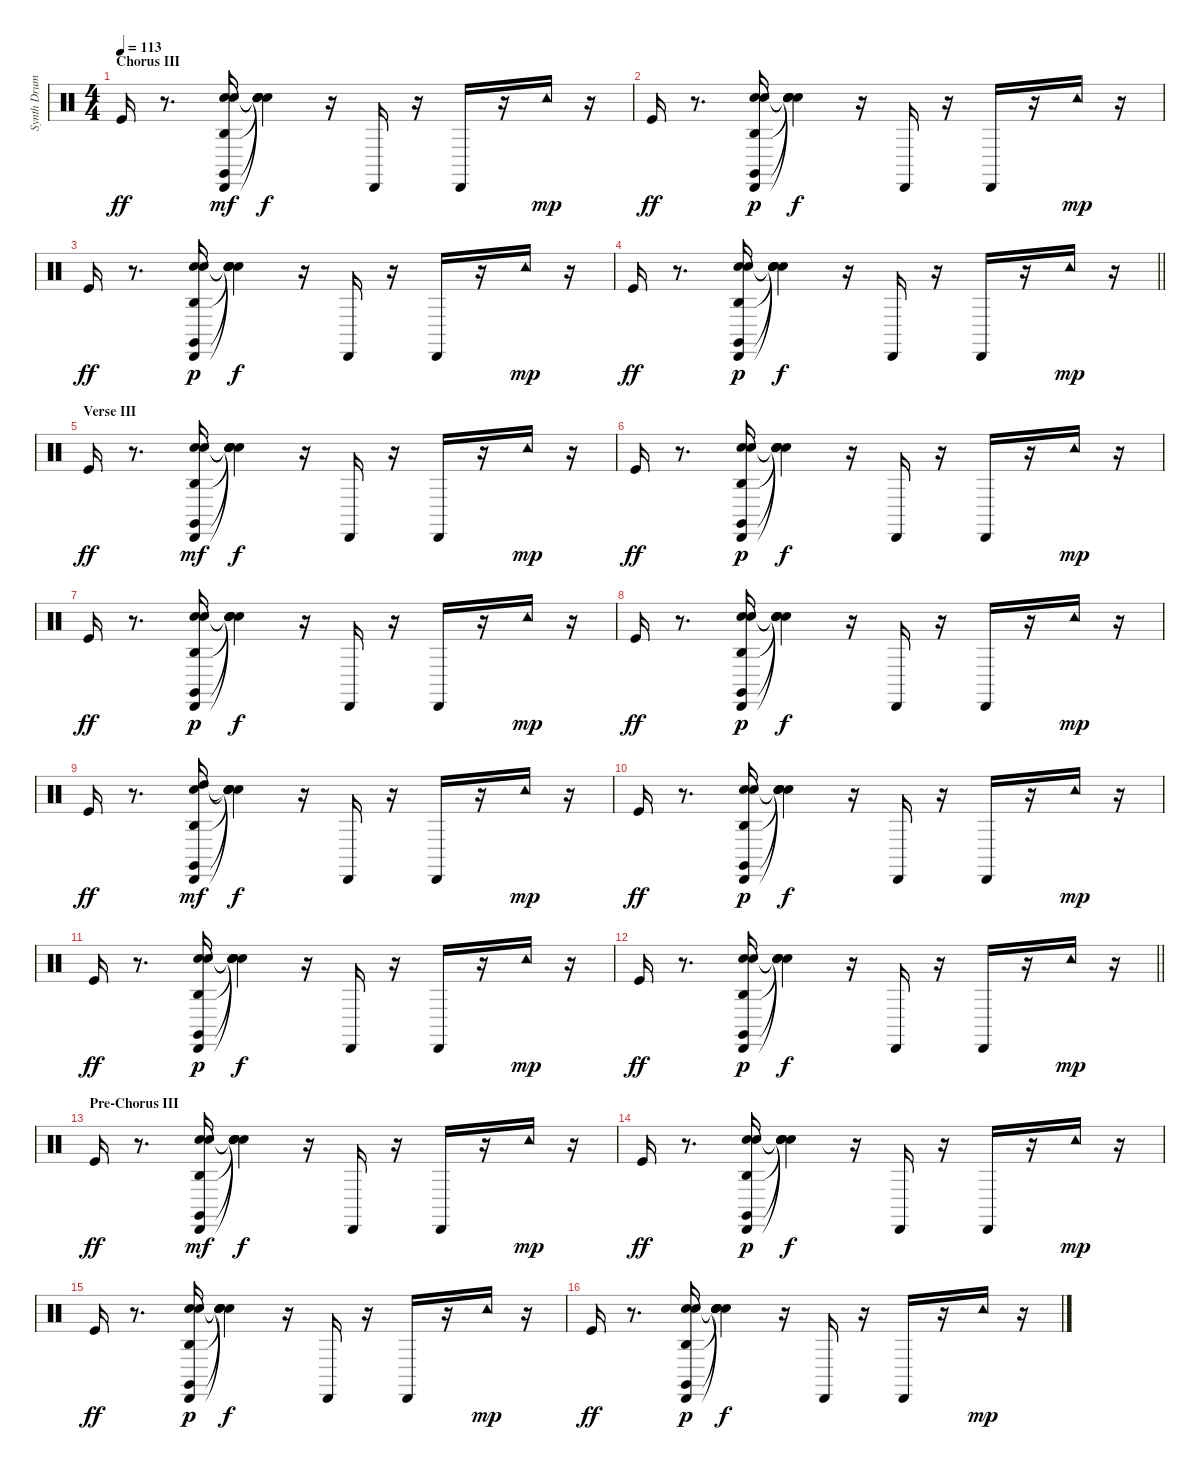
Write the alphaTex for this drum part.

\track ("Synth Drums" "Synth Drum") {instrument percussion}
\staff {score}
\articulation defaults
\ts (4 4)
\section ("" "Chorus III")
\tempo 113
\clef neutral
\ks c "Kick (hit)".16{dy ff}
r.8{d} ("Agogo high (hit)" "Claves (hit)" "Cabasa (hit)" "Electric Snare (hit)" "Snare (hit) 2").16{dy mf} ("Snare (hit)"{t} "Snare (hit)"{t} "Snare (hit)"{t} "Snare (hit)"{t} "Snare (hit)"{t}).4{dy f} r.16 "Cabasa (hit)".16 r.16 "Cabasa (hit)".16 r.16 "Tambourine (hit)".16{dy mp} r.16 |
"Kick (hit)".16{dy ff} r.8{d} ("Cabasa (hit)" "Claves (hit)" "Agogo high (hit)" "Electric Snare (hit)" "Snare (hit) 2").16{dy p} ("Snare (hit)"{t} "Snare (hit)"{t} "Snare (hit)"{t} "Snare (hit)"{t} "Snare (hit)"{t}).4{dy f} r.16 "Cabasa (hit)".16 r.16 "Cabasa (hit)".16 r.16 "Tambourine (hit)".16{dy mp} r.16 |
"Kick (hit)".16{dy ff} r.8{d} ("Cabasa (hit)" "Claves (hit)" "Agogo high (hit)" "Electric Snare (hit)" "Snare (hit) 2").16{dy p} ("Snare (hit)"{t} "Snare (hit)"{t} "Snare (hit)"{t} "Snare (hit)"{t} "Snare (hit)"{t}).4{dy f} r.16 "Cabasa (hit)".16 r.16 "Cabasa (hit)".16 r.16 "Tambourine (hit)".16{dy mp} r.16 |
\barLineRight lightlight "Kick (hit)".16{dy ff}
r.8{d} ("Cabasa (hit)" "Claves (hit)" "Agogo high (hit)" "Electric Snare (hit)" "Snare (hit) 2").16{dy p} ("Snare (hit)"{t} "Snare (hit)"{t} "Snare (hit)"{t} "Snare (hit)"{t} "Snare (hit)"{t}).4{dy f} r.16 "Cabasa (hit)".16 r.16 "Cabasa (hit)".16 r.16 "Tambourine (hit)".16{dy mp} r.16 |
\section ("" "Verse III")
"Kick (hit)".16{dy ff} r.8{d} ("Agogo high (hit)" "Claves (hit)" "Cabasa (hit)" "Electric Snare (hit)" "Snare (hit) 2").16{dy mf} ("Snare (hit)"{t} "Snare (hit)"{t} "Snare (hit)"{t} "Snare (hit)"{t} "Snare (hit)"{t}).4{dy f} r.16 "Cabasa (hit)".16 r.16 "Cabasa (hit)".16 r.16 "Tambourine (hit)".16{dy mp} r.16 |
"Kick (hit)".16{dy ff} r.8{d} ("Cabasa (hit)" "Claves (hit)" "Agogo high (hit)" "Electric Snare (hit)" "Snare (hit) 2").16{dy p} ("Snare (hit)"{t} "Snare (hit)"{t} "Snare (hit)"{t} "Snare (hit)"{t} "Snare (hit)"{t}).4{dy f} r.16 "Cabasa (hit)".16 r.16 "Cabasa (hit)".16 r.16 "Tambourine (hit)".16{dy mp} r.16 |
"Kick (hit)".16{dy ff} r.8{d} ("Cabasa (hit)" "Claves (hit)" "Agogo high (hit)" "Electric Snare (hit)" "Snare (hit) 2").16{dy p} ("Snare (hit)"{t} "Snare (hit)"{t} "Snare (hit)"{t} "Snare (hit)"{t} "Snare (hit)"{t}).4{dy f} r.16 "Cabasa (hit)".16 r.16 "Cabasa (hit)".16 r.16 "Tambourine (hit)".16{dy mp} r.16 |
"Kick (hit)".16{dy ff} r.8{d} ("Cabasa (hit)" "Claves (hit)" "Agogo high (hit)" "Electric Snare (hit)" "Snare (hit) 2").16{dy p} ("Snare (hit)"{t} "Snare (hit)"{t} "Snare (hit)"{t} "Snare (hit)"{t} "Snare (hit)"{t}).4{dy f} r.16 "Cabasa (hit)".16 r.16 "Cabasa (hit)".16 r.16 "Tambourine (hit)".16{dy mp} r.16 |
"Kick (hit)".16{dy ff} r.8{d} ("Agogo high (hit)" "Claves (hit)" "Cabasa (hit)" "Electric Snare (hit)" "High Tom (hit)").16{dy mf} ("Snare (hit)"{t} "Snare (hit)"{t} "Snare (hit)"{t} "Snare (hit)"{t} "Snare (hit)"{t}).4{dy f} r.16 "Cabasa (hit)".16 r.16 "Cabasa (hit)".16 r.16 "Tambourine (hit)".16{dy mp} r.16 |
"Kick (hit)".16{dy ff} r.8{d} ("Cabasa (hit)" "Claves (hit)" "Agogo high (hit)" "Electric Snare (hit)" "Snare (hit) 2").16{dy p} ("Snare (hit)"{t} "Snare (hit)"{t} "Snare (hit)"{t} "Snare (hit)"{t} "Snare (hit)"{t}).4{dy f} r.16 "Cabasa (hit)".16 r.16 "Cabasa (hit)".16 r.16 "Tambourine (hit)".16{dy mp} r.16 |
"Kick (hit)".16{dy ff} r.8{d} ("Cabasa (hit)" "Claves (hit)" "Agogo high (hit)" "Electric Snare (hit)" "Snare (hit) 2").16{dy p} ("Snare (hit)"{t} "Snare (hit)"{t} "Snare (hit)"{t} "Snare (hit)"{t} "Snare (hit)"{t}).4{dy f} r.16 "Cabasa (hit)".16 r.16 "Cabasa (hit)".16 r.16 "Tambourine (hit)".16{dy mp} r.16 |
\barLineRight lightlight "Kick (hit)".16{dy ff}
r.8{d} ("Cabasa (hit)" "Claves (hit)" "Agogo high (hit)" "Electric Snare (hit)" "Snare (hit) 2").16{dy p} ("Snare (hit)"{t} "Snare (hit)"{t} "Snare (hit)"{t} "Snare (hit)"{t} "Snare (hit)"{t}).4{dy f} r.16 "Cabasa (hit)".16 r.16 "Cabasa (hit)".16 r.16 "Tambourine (hit)".16{dy mp} r.16 |
\section ("" "Pre-Chorus III")
"Kick (hit)".16{dy ff} r.8{d} ("Agogo high (hit)" "Claves (hit)" "Cabasa (hit)" "Electric Snare (hit)" "Snare (hit) 2").16{dy mf} ("Snare (hit)"{t} "Snare (hit)"{t} "Snare (hit)"{t} "Snare (hit)"{t} "Snare (hit)"{t}).4{dy f} r.16 "Cabasa (hit)".16 r.16 "Cabasa (hit)".16 r.16 "Tambourine (hit)".16{dy mp} r.16 |
"Kick (hit)".16{dy ff} r.8{d} ("Cabasa (hit)" "Claves (hit)" "Agogo high (hit)" "Electric Snare (hit)" "Snare (hit) 2").16{dy p} ("Snare (hit)"{t} "Snare (hit)"{t} "Snare (hit)"{t} "Snare (hit)"{t} "Snare (hit)"{t}).4{dy f} r.16 "Cabasa (hit)".16 r.16 "Cabasa (hit)".16 r.16 "Tambourine (hit)".16{dy mp} r.16 |
"Kick (hit)".16{dy ff} r.8{d} ("Cabasa (hit)" "Claves (hit)" "Agogo high (hit)" "Electric Snare (hit)" "Snare (hit) 2").16{dy p} ("Snare (hit)"{t} "Snare (hit)"{t} "Snare (hit)"{t} "Snare (hit)"{t} "Snare (hit)"{t}).4{dy f} r.16 "Cabasa (hit)".16 r.16 "Cabasa (hit)".16 r.16 "Tambourine (hit)".16{dy mp} r.16 |
"Kick (hit)".16{dy ff} r.8{d} ("Cabasa (hit)" "Claves (hit)" "Agogo high (hit)" "Electric Snare (hit)" "Snare (hit) 2").16{dy p} ("Snare (hit)"{t} "Snare (hit)"{t} "Snare (hit)"{t} "Snare (hit)"{t} "Snare (hit)"{t}).4{dy f} r.16 "Cabasa (hit)".16 r.16 "Cabasa (hit)".16 r.16 "Tambourine (hit)".16{dy mp} r.16
